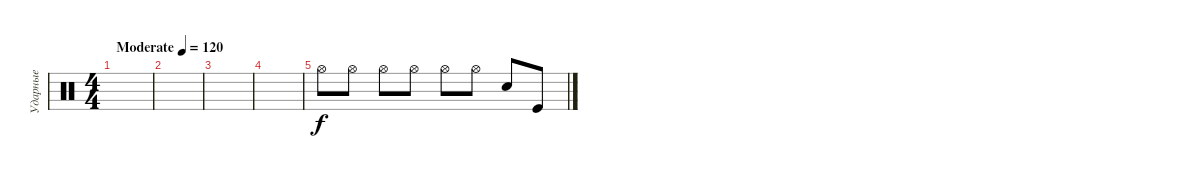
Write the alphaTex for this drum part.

\track ("Ударные" "Ударные") {instrument percussion}
\staff {score}
\articulation defaults
\ts (4 4)
\tempo (120 "Moderate")
\clef neutral
\ks c
|
|
|
|
"Hi-Hat (open)".8 "Hi-Hat (open)".8 "Hi-Hat (open)".8 "Hi-Hat (open)".8 "Hi-Hat (open)".8 "Hi-Hat (open)".8 "Snare (hit) 2".8 "Kick (hit)".8
